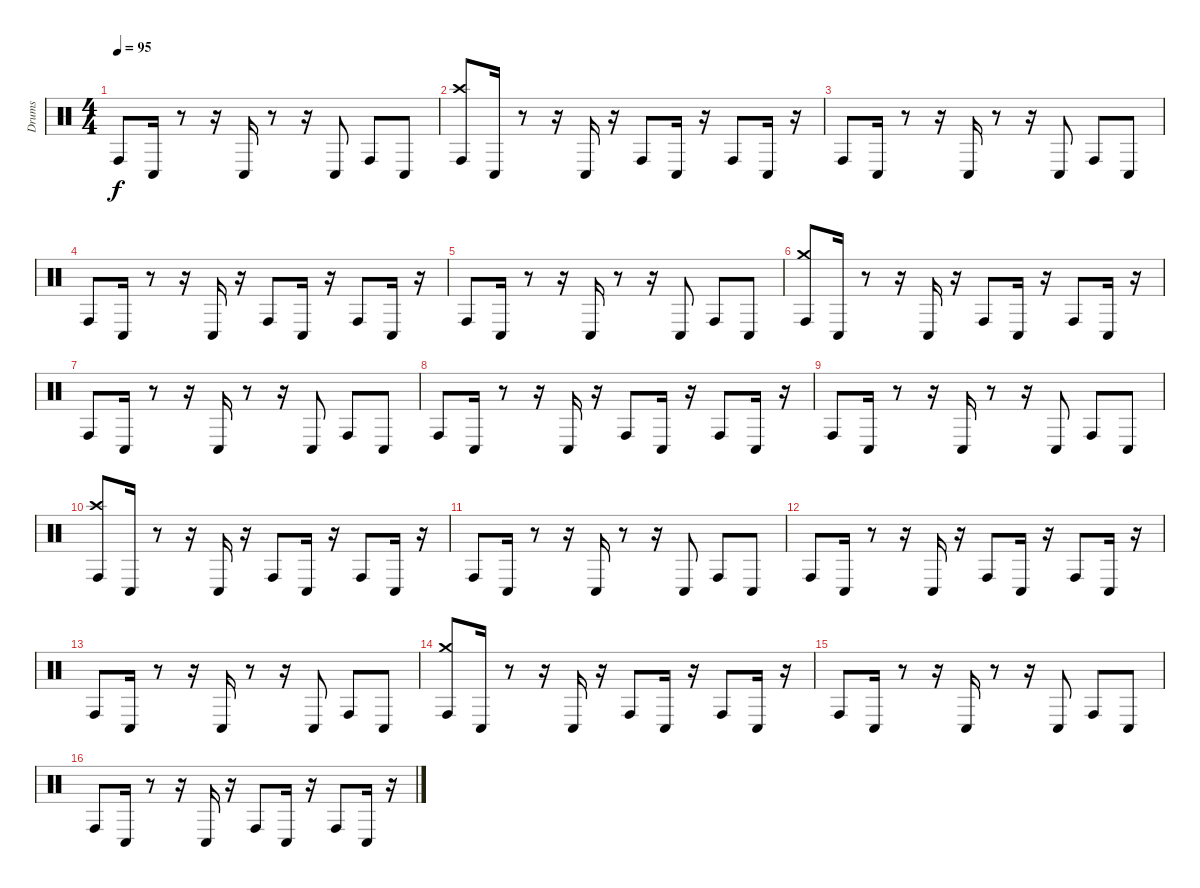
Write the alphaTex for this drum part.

\track ("Drums" "Drums") {instrument percussion}
\staff {score}
\articulation defaults
\ts (4 4)
\tempo 95
\clef neutral
\ks c "Conga high (hit)".8{dy f} "Conga low (hit)".16
r.8 r.16 "Conga low (hit)".16 r.8 r.16 "Conga low (hit)".8 "Conga high (hit)".8 "Conga low (hit)".8 |
("Conga high (hit)" "Crash high (hit)").8 "Conga low (hit)".16 r.8 r.16 "Conga low (hit)".16 r.16 "Conga high (hit)".8 "Conga low (hit)".16 r.16 "Conga high (hit)".8 "Conga low (hit)".16 r.16 |
"Conga high (hit)".8 "Conga low (hit)".16 r.8 r.16 "Conga low (hit)".16 r.8 r.16 "Conga low (hit)".8 "Conga high (hit)".8 "Conga low (hit)".8 |
"Conga high (hit)".8 "Conga low (hit)".16 r.8 r.16 "Conga low (hit)".16 r.16 "Conga high (hit)".8 "Conga low (hit)".16 r.16 "Conga high (hit)".8 "Conga low (hit)".16 r.16 |
"Conga high (hit)".8 "Conga low (hit)".16 r.8 r.16 "Conga low (hit)".16 r.8 r.16 "Conga low (hit)".8 "Conga high (hit)".8 "Conga low (hit)".8 |
("Conga high (hit)" "Crash medium (hit)").8 "Conga low (hit)".16 r.8 r.16 "Conga low (hit)".16 r.16 "Conga high (hit)".8 "Conga low (hit)".16 r.16 "Conga high (hit)".8 "Conga low (hit)".16 r.16 |
"Conga high (hit)".8 "Conga low (hit)".16 r.8 r.16 "Conga low (hit)".16 r.8 r.16 "Conga low (hit)".8 "Conga high (hit)".8 "Conga low (hit)".8 |
"Conga high (hit)".8 "Conga low (hit)".16 r.8 r.16 "Conga low (hit)".16 r.16 "Conga high (hit)".8 "Conga low (hit)".16 r.16 "Conga high (hit)".8 "Conga low (hit)".16 r.16 |
"Conga high (hit)".8 "Conga low (hit)".16 r.8 r.16 "Conga low (hit)".16 r.8 r.16 "Conga low (hit)".8 "Conga high (hit)".8 "Conga low (hit)".8 |
("Crash high (hit)" "Conga high (hit)").8 "Conga low (hit)".16 r.8 r.16 "Conga low (hit)".16 r.16 "Conga high (hit)".8 "Conga low (hit)".16 r.16 "Conga high (hit)".8 "Conga low (hit)".16 r.16 |
"Conga high (hit)".8 "Conga low (hit)".16 r.8 r.16 "Conga low (hit)".16 r.8 r.16 "Conga low (hit)".8 "Conga high (hit)".8 "Conga low (hit)".8 |
"Conga high (hit)".8 "Conga low (hit)".16 r.8 r.16 "Conga low (hit)".16 r.16 "Conga high (hit)".8 "Conga low (hit)".16 r.16 "Conga high (hit)".8 "Conga low (hit)".16 r.16 |
"Conga high (hit)".8 "Conga low (hit)".16 r.8 r.16 "Conga low (hit)".16 r.8 r.16 "Conga low (hit)".8 "Conga high (hit)".8 "Conga low (hit)".8 |
("Conga high (hit)" "Crash medium (hit)").8 "Conga low (hit)".16 r.8 r.16 "Conga low (hit)".16 r.16 "Conga high (hit)".8 "Conga low (hit)".16 r.16 "Conga high (hit)".8 "Conga low (hit)".16 r.16 |
"Conga high (hit)".8 "Conga low (hit)".16 r.8 r.16 "Conga low (hit)".16 r.8 r.16 "Conga low (hit)".8 "Conga high (hit)".8 "Conga low (hit)".8 |
"Conga high (hit)".8 "Conga low (hit)".16 r.8 r.16 "Conga low (hit)".16 r.16 "Conga high (hit)".8 "Conga low (hit)".16 r.16 "Conga high (hit)".8 "Conga low (hit)".16 r.16
